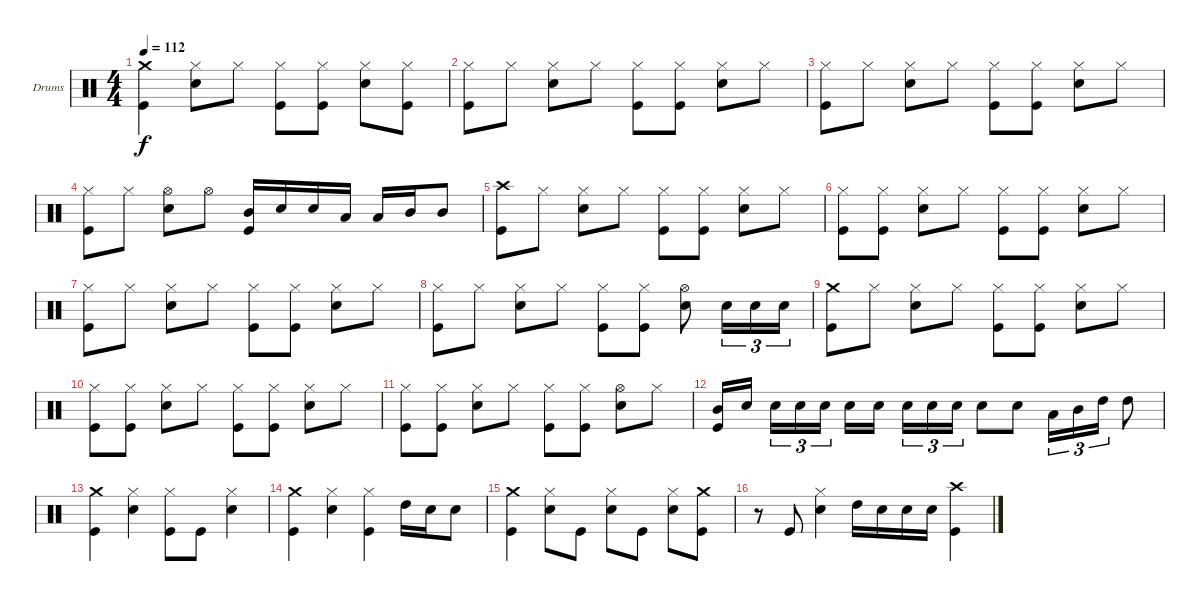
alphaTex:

\bracketExtendMode groupsimilarinstruments
\firstSystemTrackNameOrientation horizontal
\otherSystemsTrackNameOrientation horizontal
\track ("Drumkit" "Drums") {instrument percussion}
\staff {score}
\articulation defaults
\ts (4 4)
\tempo 112
\clef neutral
\ks c
("Crash medium (hit)" "Kick (hit)").4{dy f} ("Hi-Hat (closed)" "Snare (hit) 2").8 "Hi-Hat (closed)".8 ("Hi-Hat (closed)" "Kick (hit)").8 ("Hi-Hat (closed)" "Kick (hit)").8 ("Hi-Hat (closed)" "Snare (hit) 2").8 ("Hi-Hat (closed)" "Kick (hit)").8 |
("Hi-Hat (closed)" "Kick (hit)").8 "Hi-Hat (closed)".8 ("Hi-Hat (closed)" "Snare (hit) 2").8 "Hi-Hat (closed)".8 ("Hi-Hat (closed)" "Kick (hit)").8 ("Hi-Hat (closed)" "Kick (hit)").8 ("Hi-Hat (closed)" "Snare (hit) 2").8 "Hi-Hat (closed)".8 |
("Hi-Hat (closed)" "Kick (hit)").8 "Hi-Hat (closed)".8 ("Hi-Hat (closed)" "Snare (hit) 2").8 "Hi-Hat (closed)".8 ("Hi-Hat (closed)" "Kick (hit)").8 ("Hi-Hat (closed)" "Kick (hit)").8 ("Hi-Hat (closed)" "Snare (hit) 2").8 "Hi-Hat (closed)".8 |
("Hi-Hat (closed)" "Kick (hit)").8 "Hi-Hat (closed)".8 ("Hi-Hat (open)" "Snare (hit) 2").8 "Hi-Hat (open)".8 ("Mid Tom (hit)" "Kick (hit)").16 "Snare (hit) 2".16 "Snare (hit) 2".16 "Low Tom (hit)".16 "Low Tom (hit)".16 "Mid Tom (hit)".16 "Mid Tom (hit)".8 |
("Crash high (hit)" "Kick (hit)").8 "Hi-Hat (closed)".8 ("Hi-Hat (closed)" "Snare (hit) 2").8 "Hi-Hat (closed)".8 ("Hi-Hat (closed)" "Kick (hit)").8 ("Hi-Hat (closed)" "Kick (hit)").8 ("Hi-Hat (closed)" "Snare (hit) 2").8 "Hi-Hat (closed)".8 |
("Hi-Hat (closed)" "Kick (hit)").8 ("Hi-Hat (closed)" "Kick (hit)").8 ("Hi-Hat (closed)" "Snare (hit) 2").8 "Hi-Hat (closed)".8 ("Hi-Hat (closed)" "Kick (hit)").8 ("Hi-Hat (closed)" "Kick (hit)").8 ("Hi-Hat (closed)" "Snare (hit) 2").8 "Hi-Hat (closed)".8 |
("Hi-Hat (closed)" "Kick (hit)").8 "Hi-Hat (closed)".8 ("Hi-Hat (closed)" "Snare (hit) 2").8 "Hi-Hat (closed)".8 ("Hi-Hat (closed)" "Kick (hit)").8 ("Hi-Hat (closed)" "Kick (hit)").8 ("Hi-Hat (closed)" "Snare (hit) 2").8 "Hi-Hat (closed)".8 |
("Hi-Hat (closed)" "Kick (hit)").8 "Hi-Hat (closed)".8 ("Hi-Hat (closed)" "Snare (hit) 2").8 "Hi-Hat (closed)".8 ("Hi-Hat (closed)" "Kick (hit)").8 ("Hi-Hat (closed)" "Kick (hit)").8 ("Hi-Hat (open)" "Snare (hit) 2").8 "Snare (hit) 2".16{tu (3 2)} "Snare (hit) 2".16{tu (3 2)} "Snare (hit) 2".16{tu (3 2)} |
("Crash medium (hit)" "Kick (hit)").8 "Hi-Hat (closed)".8 ("Hi-Hat (closed)" "Snare (hit) 2").8 "Hi-Hat (closed)".8 ("Hi-Hat (closed)" "Kick (hit)").8 ("Hi-Hat (closed)" "Kick (hit)").8 ("Hi-Hat (closed)" "Snare (hit) 2").8 "Hi-Hat (closed)".8 |
("Hi-Hat (closed)" "Kick (hit)").8 ("Hi-Hat (closed)" "Kick (hit)").8 ("Hi-Hat (closed)" "Snare (hit) 2").8 "Hi-Hat (closed)".8 ("Hi-Hat (closed)" "Kick (hit)").8 ("Hi-Hat (closed)" "Kick (hit)").8 ("Hi-Hat (closed)" "Snare (hit) 2").8 "Hi-Hat (closed)".8 |
("Hi-Hat (closed)" "Kick (hit)").8 ("Hi-Hat (closed)" "Kick (hit)").8 ("Hi-Hat (closed)" "Snare (hit) 2").8 "Hi-Hat (closed)".8 ("Hi-Hat (closed)" "Kick (hit)").8 ("Hi-Hat (closed)" "Kick (hit)").8 ("Hi-Hat (open)" "Snare (hit) 2").8 "Hi-Hat (closed)".8 |
("Mid Tom (hit)" "Kick (hit)").16 "Snare (hit) 2".16 "Snare (hit) 2".16{tu (3 2)} "Snare (hit) 2".16{tu (3 2)} "Snare (hit) 2".16{tu (3 2)} "Snare (hit) 2".16 "Snare (hit) 2".16 "Snare (hit) 2".16{tu (3 2)} "Snare (hit) 2".16{tu (3 2)} "Snare (hit) 2".16{tu (3 2)} "Snare (hit) 2".8 "Snare (hit) 2".8 "Low Tom (hit)".16{tu (3 2)} "Mid Tom (hit)".16{tu (3 2)} "High Tom (hit)".16{tu (3 2)} "High Tom (hit)".8 |
("Crash medium (hit)" "Kick (hit)").4 ("Hi-Hat (closed)" "Snare (hit) 2").4 ("Hi-Hat (closed)" "Kick (hit)").8 "Kick (hit)".8 ("Hi-Hat (closed)" "Snare (hit) 2").4 |
("Crash medium (hit)" "Kick (hit)").4 ("Hi-Hat (closed)" "Snare (hit) 2").4 ("Hi-Hat (closed)" "Kick (hit)").4 "High Tom (hit)".16 "Snare (hit) 2".16 "Snare (hit) 2".8 |
("Crash medium (hit)" "Kick (hit)").4 ("Hi-Hat (closed)" "Snare (hit) 2").8 "Kick (hit)".8 ("Hi-Hat (closed)" "Snare (hit) 2").8 "Kick (hit)".8 ("Hi-Hat (closed)" "Snare (hit) 2").8 ("Crash medium (hit)" "Kick (hit)").8 |
r.8 "Kick (hit)".8 ("Hi-Hat (closed)" "Snare (hit) 2").4 "High Tom (hit)".16 "Snare (hit) 2".16 "Snare (hit) 2".16 "Snare (hit) 2".16 ("Crash high (hit)" "Kick (hit)").4
